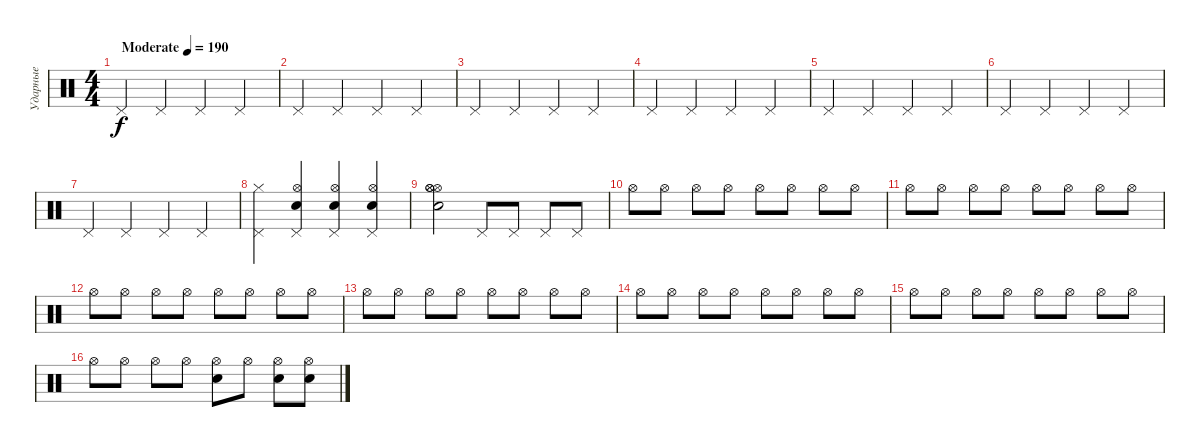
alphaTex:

\track ("Ударные" "Ударные") {instrument percussion}
\staff {score}
\articulation defaults
\ts (4 4)
\tempo (190 "Moderate")
\clef neutral
\ks c "Pedal Hi-Hat (hit)".4{dy f} "Pedal Hi-Hat (hit)".4 "Pedal Hi-Hat (hit)".4 "Pedal Hi-Hat (hit)".4
|
"Pedal Hi-Hat (hit)".4 "Pedal Hi-Hat (hit)".4 "Pedal Hi-Hat (hit)".4 "Pedal Hi-Hat (hit)".4 |
"Pedal Hi-Hat (hit)".4 "Pedal Hi-Hat (hit)".4 "Pedal Hi-Hat (hit)".4 "Pedal Hi-Hat (hit)".4 |
"Pedal Hi-Hat (hit)".4 "Pedal Hi-Hat (hit)".4 "Pedal Hi-Hat (hit)".4 "Pedal Hi-Hat (hit)".4 |
"Pedal Hi-Hat (hit)".4 "Pedal Hi-Hat (hit)".4 "Pedal Hi-Hat (hit)".4 "Pedal Hi-Hat (hit)".4 |
"Pedal Hi-Hat (hit)".4 "Pedal Hi-Hat (hit)".4 "Pedal Hi-Hat (hit)".4 "Pedal Hi-Hat (hit)".4 |
"Pedal Hi-Hat (hit)".4 "Pedal Hi-Hat (hit)".4 "Pedal Hi-Hat (hit)".4 "Pedal Hi-Hat (hit)".4 |
("Pedal Hi-Hat (hit)" "Hi-Hat (closed)").4 ("Pedal Hi-Hat (hit)" "Hi-Hat (open)" "Electric Snare (hit)").4 ("Pedal Hi-Hat (hit)" "Hi-Hat (open)" "Electric Snare (hit)").4 ("Pedal Hi-Hat (hit)" "Hi-Hat (open)" "Electric Snare (hit)").4 |
("Hi-Hat (open)" "Hi-Hat (open)" "Hi-Hat (open)" "Electric Snare (hit)").2 "Pedal Hi-Hat (hit)".8 "Pedal Hi-Hat (hit)".8 "Pedal Hi-Hat (hit)".8 "Pedal Hi-Hat (hit)".8 |
"Hi-Hat (open)".8 "Hi-Hat (open)".8 "Hi-Hat (open)".8 "Hi-Hat (open)".8 "Hi-Hat (open)".8 "Hi-Hat (open)".8 "Hi-Hat (open)".8 "Hi-Hat (open)".8 |
"Hi-Hat (open)".8 "Hi-Hat (open)".8 "Hi-Hat (open)".8 "Hi-Hat (open)".8 "Hi-Hat (open)".8 "Hi-Hat (open)".8 "Hi-Hat (open)".8 "Hi-Hat (open)".8 |
"Hi-Hat (open)".8 "Hi-Hat (open)".8 "Hi-Hat (open)".8 "Hi-Hat (open)".8 "Hi-Hat (open)".8 "Hi-Hat (open)".8 "Hi-Hat (open)".8 "Hi-Hat (open)".8 |
"Hi-Hat (open)".8 "Hi-Hat (open)".8 "Hi-Hat (open)".8 "Hi-Hat (open)".8 "Hi-Hat (open)".8 "Hi-Hat (open)".8 "Hi-Hat (open)".8 "Hi-Hat (open)".8 |
"Hi-Hat (open)".8 "Hi-Hat (open)".8 "Hi-Hat (open)".8 "Hi-Hat (open)".8 "Hi-Hat (open)".8 "Hi-Hat (open)".8 "Hi-Hat (open)".8 "Hi-Hat (open)".8 |
"Hi-Hat (open)".8 "Hi-Hat (open)".8 "Hi-Hat (open)".8 "Hi-Hat (open)".8 "Hi-Hat (open)".8 "Hi-Hat (open)".8 "Hi-Hat (open)".8 "Hi-Hat (open)".8 |
"Hi-Hat (open)".8 "Hi-Hat (open)".8 "Hi-Hat (open)".8 "Hi-Hat (open)".8 ("Hi-Hat (open)" "Electric Snare (hit)").8 "Hi-Hat (open)".8 ("Hi-Hat (open)" "Snare (hit) 2").8 ("Hi-Hat (open)" "Snare (hit) 2").8
